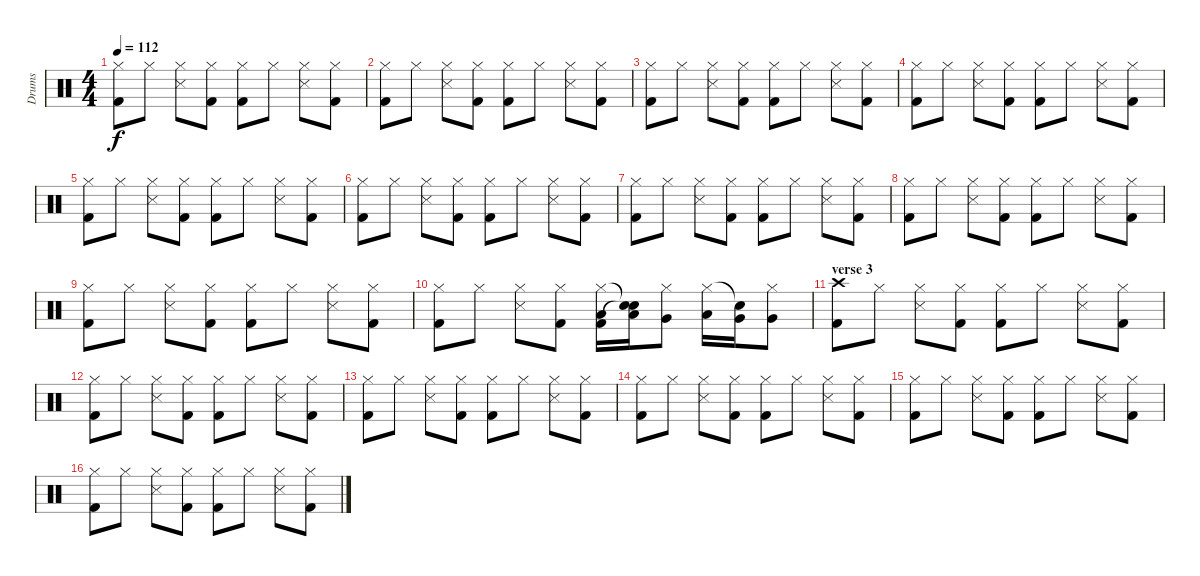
\track ("Drums" "Drums") {instrument percussion}
\staff {score}
\articulation defaults
\ts (4 4)
\tempo 112
\clef neutral
\ks c
("Hi-Hat (closed)" "Kick (hit) 2").8{dy f} "Hi-Hat (closed)".8 ("Hi-Hat (closed)" "Snare (side stick) 3").8 ("Hi-Hat (closed)" "Kick (hit) 2").8 ("Hi-Hat (closed)" "Kick (hit) 2").8 "Hi-Hat (closed)".8 ("Hi-Hat (closed)" "Snare (side stick) 3").8 ("Hi-Hat (closed)" "Kick (hit) 2").8 |
("Hi-Hat (closed)" "Kick (hit) 2").8 "Hi-Hat (closed)".8 ("Hi-Hat (closed)" "Snare (side stick) 3").8 ("Hi-Hat (closed)" "Kick (hit) 2").8 ("Hi-Hat (closed)" "Kick (hit) 2").8 "Hi-Hat (closed)".8 ("Hi-Hat (closed)" "Snare (side stick) 3").8 ("Hi-Hat (closed)" "Kick (hit) 2").8 |
("Hi-Hat (closed)" "Kick (hit) 2").8 "Hi-Hat (closed)".8 ("Hi-Hat (closed)" "Snare (side stick) 3").8 ("Hi-Hat (closed)" "Kick (hit) 2").8 ("Hi-Hat (closed)" "Kick (hit) 2").8 "Hi-Hat (closed)".8 ("Hi-Hat (closed)" "Snare (side stick) 3").8 ("Hi-Hat (closed)" "Kick (hit) 2").8 |
("Hi-Hat (closed)" "Kick (hit) 2").8 "Hi-Hat (closed)".8 ("Hi-Hat (closed)" "Snare (side stick) 3").8 ("Hi-Hat (closed)" "Kick (hit) 2").8 ("Hi-Hat (closed)" "Kick (hit) 2").8 "Hi-Hat (closed)".8 ("Hi-Hat (closed)" "Snare (side stick) 3").8 ("Hi-Hat (closed)" "Kick (hit) 2").8 |
("Hi-Hat (closed)" "Kick (hit) 2").8 "Hi-Hat (closed)".8 ("Hi-Hat (closed)" "Snare (side stick) 3").8 ("Hi-Hat (closed)" "Kick (hit) 2").8 ("Hi-Hat (closed)" "Kick (hit) 2").8 "Hi-Hat (closed)".8 ("Hi-Hat (closed)" "Snare (side stick) 3").8 ("Hi-Hat (closed)" "Kick (hit) 2").8 |
("Hi-Hat (closed)" "Kick (hit) 2").8 "Hi-Hat (closed)".8 ("Hi-Hat (closed)" "Snare (side stick) 3").8 ("Hi-Hat (closed)" "Kick (hit) 2").8 ("Hi-Hat (closed)" "Kick (hit) 2").8 "Hi-Hat (closed)".8 ("Hi-Hat (closed)" "Snare (side stick) 3").8 ("Hi-Hat (closed)" "Kick (hit) 2").8 |
("Hi-Hat (closed)" "Kick (hit) 2").8 "Hi-Hat (closed)".8 ("Hi-Hat (closed)" "Snare (side stick) 3").8 ("Hi-Hat (closed)" "Kick (hit) 2").8 ("Hi-Hat (closed)" "Kick (hit) 2").8 "Hi-Hat (closed)".8 ("Hi-Hat (closed)" "Snare (side stick) 3").8 ("Hi-Hat (closed)" "Kick (hit) 2").8 |
("Hi-Hat (closed)" "Kick (hit) 2").8 "Hi-Hat (closed)".8 ("Hi-Hat (closed)" "Snare (side stick) 3").8 ("Hi-Hat (closed)" "Kick (hit) 2").8 ("Hi-Hat (closed)" "Kick (hit) 2").8 "Hi-Hat (closed)".8 ("Hi-Hat (closed)" "Snare (side stick) 3").8 ("Hi-Hat (closed)" "Kick (hit) 2").8 |
("Hi-Hat (closed)" "Kick (hit) 2").8 "Hi-Hat (closed)".8 ("Hi-Hat (closed)" "Snare (side stick) 3").8 ("Hi-Hat (closed)" "Kick (hit) 2").8 ("Hi-Hat (closed)" "Kick (hit) 2").8 "Hi-Hat (closed)".8 ("Hi-Hat (closed)" "Snare (side stick) 3").8 ("Hi-Hat (closed)" "Kick (hit) 2").8 |
("Hi-Hat (closed)" "Kick (hit) 2").8 "Hi-Hat (closed)".8 ("Hi-Hat (closed)" "Snare (side stick) 3").8 ("Hi-Hat (closed)" "Kick (hit) 2").8 ("Hi-Hat (closed)" "Low Tom (hit)" "Kick (hit) 2").16 ("Snare (hit)"{t} "Low Tom (hit)" "Snare (hit)"{t}).16 ("Hi-Hat (closed)" "Very Low Tom (hit)").8 ("Hi-Hat (closed)" "Low Tom (hit)").16 ("Snare (hit)"{t} "Very Low Tom (hit)").16 ("Hi-Hat (closed)" "Very Low Tom (hit)").8 |
\section ("" "verse 3")
("Crash high (hit)" "Kick (hit) 2").8 "Hi-Hat (closed)".8 ("Hi-Hat (closed)" "Snare (side stick) 3").8 ("Hi-Hat (closed)" "Kick (hit) 2").8 ("Hi-Hat (closed)" "Kick (hit) 2").8 "Hi-Hat (closed)".8 ("Hi-Hat (closed)" "Snare (side stick) 3").8 ("Hi-Hat (closed)" "Kick (hit) 2").8 |
("Hi-Hat (closed)" "Kick (hit) 2").8 "Hi-Hat (closed)".8 ("Hi-Hat (closed)" "Snare (side stick) 3").8 ("Hi-Hat (closed)" "Kick (hit) 2").8 ("Hi-Hat (closed)" "Kick (hit) 2").8 "Hi-Hat (closed)".8 ("Hi-Hat (closed)" "Snare (side stick) 3").8 ("Hi-Hat (closed)" "Kick (hit) 2").8 |
("Hi-Hat (closed)" "Kick (hit) 2").8 "Hi-Hat (closed)".8 ("Hi-Hat (closed)" "Snare (side stick) 3").8 ("Hi-Hat (closed)" "Kick (hit) 2").8 ("Hi-Hat (closed)" "Kick (hit) 2").8 "Hi-Hat (closed)".8 ("Hi-Hat (closed)" "Snare (side stick) 3").8 ("Hi-Hat (closed)" "Kick (hit) 2").8 |
("Hi-Hat (closed)" "Kick (hit) 2").8 "Hi-Hat (closed)".8 ("Hi-Hat (closed)" "Snare (side stick) 3").8 ("Hi-Hat (closed)" "Kick (hit) 2").8 ("Hi-Hat (closed)" "Kick (hit) 2").8 "Hi-Hat (closed)".8 ("Hi-Hat (closed)" "Snare (side stick) 3").8 ("Hi-Hat (closed)" "Kick (hit) 2").8 |
("Hi-Hat (closed)" "Kick (hit) 2").8 "Hi-Hat (closed)".8 ("Hi-Hat (closed)" "Snare (side stick) 3").8 ("Hi-Hat (closed)" "Kick (hit) 2").8 ("Hi-Hat (closed)" "Kick (hit) 2").8 "Hi-Hat (closed)".8 ("Hi-Hat (closed)" "Snare (side stick) 3").8 ("Hi-Hat (closed)" "Kick (hit) 2").8 |
("Hi-Hat (closed)" "Kick (hit) 2").8 "Hi-Hat (closed)".8 ("Hi-Hat (closed)" "Snare (side stick) 3").8 ("Hi-Hat (closed)" "Kick (hit) 2").8 ("Hi-Hat (closed)" "Kick (hit) 2").8 "Hi-Hat (closed)".8 ("Hi-Hat (closed)" "Snare (side stick) 3").8 ("Hi-Hat (closed)" "Kick (hit) 2").8
